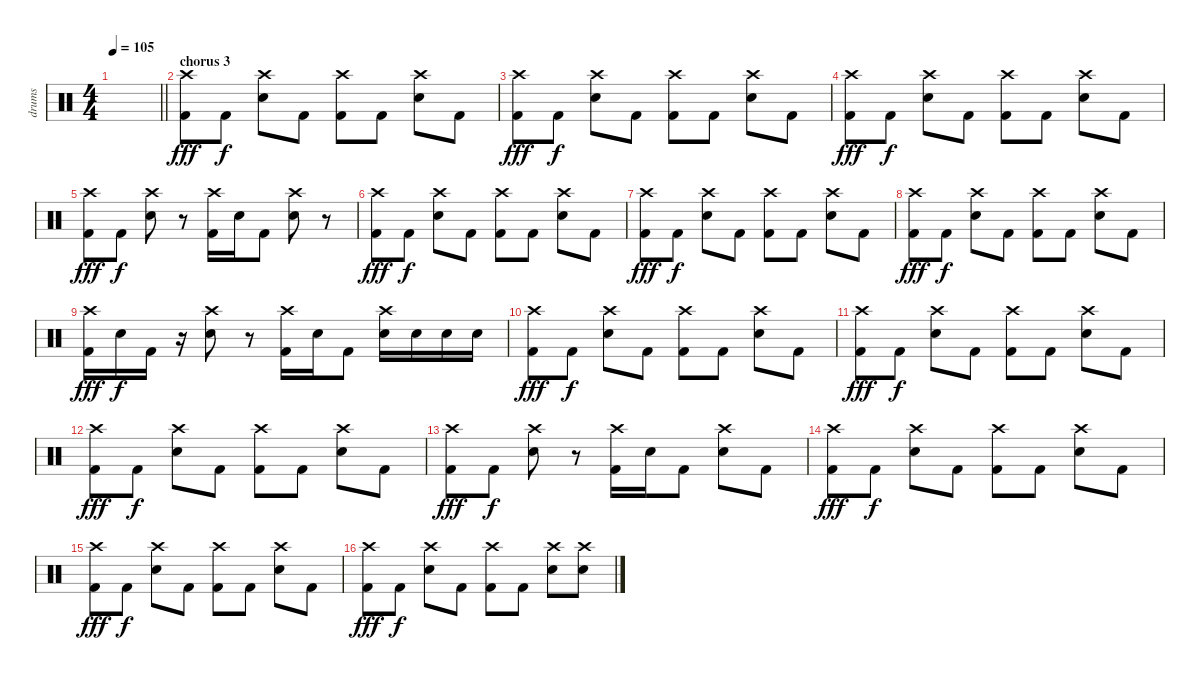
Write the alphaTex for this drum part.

\track ("drums" "drums") {instrument percussion}
\staff {score}
\articulation defaults
\ts (4 4)
\tempo 105
\clef neutral
\barLineRight lightlight
\ks c
|
\section ("" "chorus 3")
("Crash high (hit)" "Kick (hit) 2").8{dy fff} "Kick (hit) 2".8{dy f} ("Crash high (hit)" "Electric Snare (hit)").8 "Kick (hit) 2".8 ("Crash high (hit)" "Kick (hit) 2").8 "Kick (hit) 2".8 ("Crash high (hit)" "Electric Snare (hit)").8 "Kick (hit) 2".8 |
("Crash high (hit)" "Kick (hit) 2").8{dy fff} "Kick (hit) 2".8{dy f} ("Crash high (hit)" "Electric Snare (hit)").8 "Kick (hit) 2".8 ("Crash high (hit)" "Kick (hit) 2").8 "Kick (hit) 2".8 ("Crash high (hit)" "Electric Snare (hit)").8 "Kick (hit) 2".8 |
("Crash high (hit)" "Kick (hit) 2").8{dy fff} "Kick (hit) 2".8{dy f} ("Crash high (hit)" "Electric Snare (hit)").8 "Kick (hit) 2".8 ("Crash high (hit)" "Kick (hit) 2").8 "Kick (hit) 2".8 ("Crash high (hit)" "Electric Snare (hit)").8 "Kick (hit) 2".8 |
("Crash high (hit)" "Kick (hit) 2").8{dy fff} "Kick (hit) 2".8{dy f} ("Crash high (hit)" "Electric Snare (hit)").8 r.8 ("Crash high (hit)" "Kick (hit) 2").16 "Electric Snare (hit)".16 "Kick (hit) 2".8 ("Crash high (hit)" "Electric Snare (hit)").8 r.8 |
("Crash high (hit)" "Kick (hit) 2").8{dy fff} "Kick (hit) 2".8{dy f} ("Crash high (hit)" "Electric Snare (hit)").8 "Kick (hit) 2".8 ("Crash high (hit)" "Kick (hit) 2").8 "Kick (hit) 2".8 ("Crash high (hit)" "Electric Snare (hit)").8 "Kick (hit) 2".8 |
("Crash high (hit)" "Kick (hit) 2").8{dy fff} "Kick (hit) 2".8{dy f} ("Crash high (hit)" "Electric Snare (hit)").8 "Kick (hit) 2".8 ("Crash high (hit)" "Kick (hit) 2").8 "Kick (hit) 2".8 ("Crash high (hit)" "Electric Snare (hit)").8 "Kick (hit) 2".8 |
("Crash high (hit)" "Kick (hit) 2").8{dy fff} "Kick (hit) 2".8{dy f} ("Crash high (hit)" "Electric Snare (hit)").8 "Kick (hit) 2".8 ("Crash high (hit)" "Kick (hit) 2").8 "Kick (hit) 2".8 ("Crash high (hit)" "Electric Snare (hit)").8 "Kick (hit) 2".8 |
("Crash high (hit)" "Kick (hit) 2").16{dy fff} "Electric Snare (hit)".16{dy f} "Kick (hit) 2".16 r.16 ("Crash high (hit)" "Electric Snare (hit)").8 r.8 ("Crash high (hit)" "Kick (hit) 2").16 "Electric Snare (hit)".16 "Kick (hit) 2".8 ("Crash high (hit)" "Electric Snare (hit)").16 "Electric Snare (hit)".16 "Electric Snare (hit)".16 "Electric Snare (hit)".16 |
("Crash high (hit)" "Kick (hit) 2").8{dy fff} "Kick (hit) 2".8{dy f} ("Crash high (hit)" "Electric Snare (hit)").8 "Kick (hit) 2".8 ("Crash high (hit)" "Kick (hit) 2").8 "Kick (hit) 2".8 ("Crash high (hit)" "Electric Snare (hit)").8 "Kick (hit) 2".8 |
("Crash high (hit)" "Kick (hit) 2").8{dy fff} "Kick (hit) 2".8{dy f} ("Crash high (hit)" "Electric Snare (hit)").8 "Kick (hit) 2".8 ("Crash high (hit)" "Kick (hit) 2").8 "Kick (hit) 2".8 ("Crash high (hit)" "Electric Snare (hit)").8 "Kick (hit) 2".8 |
("Crash high (hit)" "Kick (hit) 2").8{dy fff} "Kick (hit) 2".8{dy f} ("Crash high (hit)" "Electric Snare (hit)").8 "Kick (hit) 2".8 ("Crash high (hit)" "Kick (hit) 2").8 "Kick (hit) 2".8 ("Crash high (hit)" "Electric Snare (hit)").8 "Kick (hit) 2".8 |
("Crash high (hit)" "Kick (hit) 2").8{dy fff} "Kick (hit) 2".8{dy f} ("Crash high (hit)" "Electric Snare (hit)").8 r.8 ("Crash high (hit)" "Kick (hit) 2").16 "Electric Snare (hit)".16 "Kick (hit) 2".8 ("Crash high (hit)" "Electric Snare (hit)").8 "Kick (hit) 2".8 |
("Crash high (hit)" "Kick (hit) 2").8{dy fff} "Kick (hit) 2".8{dy f} ("Crash high (hit)" "Electric Snare (hit)").8 "Kick (hit) 2".8 ("Crash high (hit)" "Kick (hit) 2").8 "Kick (hit) 2".8 ("Crash high (hit)" "Electric Snare (hit)").8 "Kick (hit) 2".8 |
("Crash high (hit)" "Kick (hit) 2").8{dy fff} "Kick (hit) 2".8{dy f} ("Crash high (hit)" "Electric Snare (hit)").8 "Kick (hit) 2".8 ("Crash high (hit)" "Kick (hit) 2").8 "Kick (hit) 2".8 ("Crash high (hit)" "Electric Snare (hit)").8 "Kick (hit) 2".8 |
("Crash high (hit)" "Kick (hit) 2").8{dy fff} "Kick (hit) 2".8{dy f} ("Crash high (hit)" "Electric Snare (hit)").8 "Kick (hit) 2".8 ("Crash high (hit)" "Kick (hit) 2").8 "Kick (hit) 2".8 ("Crash high (hit)" "Electric Snare (hit)").8 ("Crash high (hit)" "Electric Snare (hit)").8
